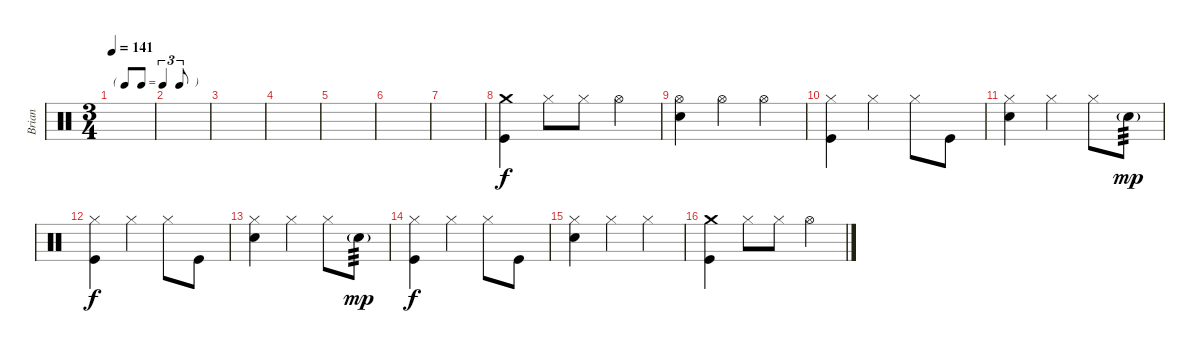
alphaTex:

\track ("Brian" "Brian") {instrument percussion}
\staff {score}
\articulation defaults
\ts (3 4)
\tf triplet8th
\tempo 141
\clef neutral
\ks c
|
|
|
|
|
|
|
("Crash medium (hit)" "Kick (hit)").4 "Hi-Hat (closed)".8 "Hi-Hat (closed)".8 "Hi-Hat (open)".4 |
("Hi-Hat (open)" "Electric Snare (hit)").4 "Hi-Hat (open)".4 "Hi-Hat (open)".4 |
("Hi-Hat (closed)" "Kick (hit)").4 "Hi-Hat (closed)".4 "Hi-Hat (closed)".8 "Kick (hit)".8 |
("Hi-Hat (closed)" "Electric Snare (hit)").4 "Hi-Hat (closed)".4 "Hi-Hat (closed)".8 "Electric Snare (hit)"{g}.8{tp 3 dy mp volume 7} |
("Hi-Hat (closed)" "Kick (hit)").4{dy f volume 16} "Hi-Hat (closed)".4 "Hi-Hat (closed)".8 "Kick (hit)".8 |
("Hi-Hat (closed)" "Electric Snare (hit)").4 "Hi-Hat (closed)".4 "Hi-Hat (closed)".8 "Electric Snare (hit)"{g}.8{tp 3 dy mp volume 7} |
("Hi-Hat (closed)" "Kick (hit)").4{dy f volume 16} "Hi-Hat (closed)".4 "Hi-Hat (closed)".8 "Kick (hit)".8 |
("Hi-Hat (closed)" "Electric Snare (hit)").4 "Hi-Hat (closed)".4 "Hi-Hat (closed)".4 |
("Crash medium (hit)" "Kick (hit)").4 "Hi-Hat (closed)".8 "Hi-Hat (closed)".8 "Hi-Hat (open)".4
